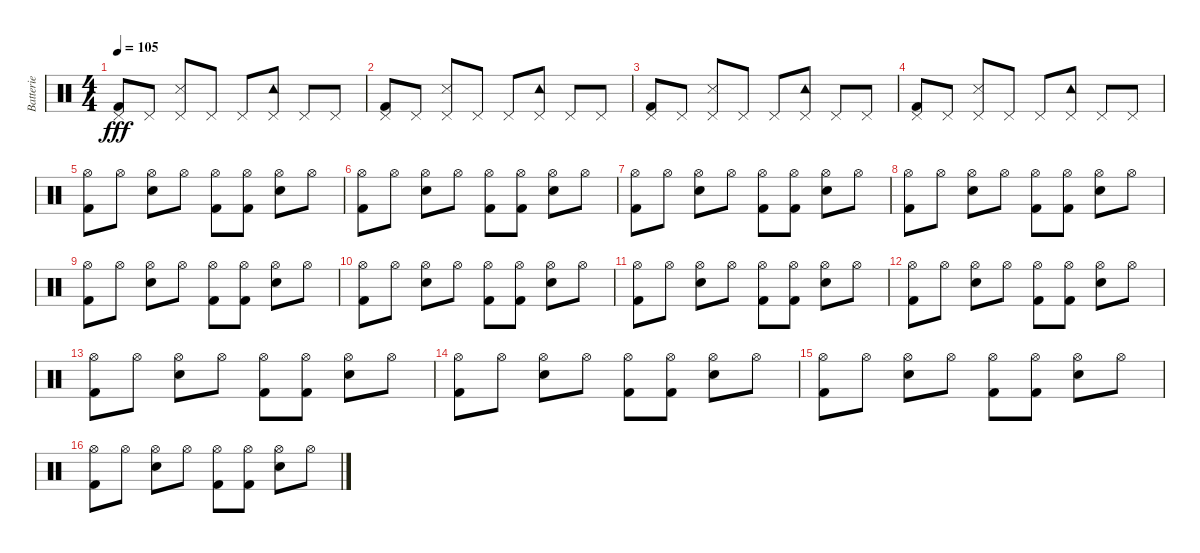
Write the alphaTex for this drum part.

\track ("Batterie" "Batterie") {instrument percussion}
\staff {score}
\articulation defaults
\ts (4 4)
\tempo 105
\clef neutral
\ks c
("Pedal Hi-Hat (hit)" "Kick (hit) 2").8{dy fff} "Pedal Hi-Hat (hit)".8 ("Pedal Hi-Hat (hit)" "Snare (side stick) 3").8 "Pedal Hi-Hat (hit)".8 "Pedal Hi-Hat (hit)".8 ("Pedal Hi-Hat (hit)" "Tambourine (hit)").8 "Pedal Hi-Hat (hit)".8 "Pedal Hi-Hat (hit)".8 |
("Pedal Hi-Hat (hit)" "Kick (hit) 2").8 "Pedal Hi-Hat (hit)".8 ("Pedal Hi-Hat (hit)" "Snare (side stick) 3").8 "Pedal Hi-Hat (hit)".8 "Pedal Hi-Hat (hit)".8 ("Pedal Hi-Hat (hit)" "Tambourine (hit)").8 "Pedal Hi-Hat (hit)".8 "Pedal Hi-Hat (hit)".8 |
("Pedal Hi-Hat (hit)" "Kick (hit) 2").8 "Pedal Hi-Hat (hit)".8 ("Pedal Hi-Hat (hit)" "Snare (side stick) 3").8 "Pedal Hi-Hat (hit)".8 "Pedal Hi-Hat (hit)".8 ("Pedal Hi-Hat (hit)" "Tambourine (hit)").8 "Pedal Hi-Hat (hit)".8 "Pedal Hi-Hat (hit)".8 |
("Pedal Hi-Hat (hit)" "Kick (hit) 2").8 "Pedal Hi-Hat (hit)".8 ("Pedal Hi-Hat (hit)" "Snare (side stick) 3").8 "Pedal Hi-Hat (hit)".8 "Pedal Hi-Hat (hit)".8 ("Pedal Hi-Hat (hit)" "Tambourine (hit)").8 "Pedal Hi-Hat (hit)".8 "Pedal Hi-Hat (hit)".8 |
("Hi-Hat (open)" "Kick (hit) 2").8 "Hi-Hat (open)".8 ("Hi-Hat (open)" "Electric Snare (hit)").8 "Hi-Hat (open)".8 ("Hi-Hat (open)" "Kick (hit) 2").8 ("Hi-Hat (open)" "Kick (hit) 2").8 ("Hi-Hat (open)" "Electric Snare (hit)").8 "Hi-Hat (open)".8 |
("Hi-Hat (open)" "Kick (hit) 2").8 "Hi-Hat (open)".8 ("Hi-Hat (open)" "Electric Snare (hit)").8 "Hi-Hat (open)".8 ("Hi-Hat (open)" "Kick (hit) 2").8 ("Hi-Hat (open)" "Kick (hit) 2").8 ("Hi-Hat (open)" "Electric Snare (hit)").8 "Hi-Hat (open)".8 |
("Hi-Hat (open)" "Kick (hit) 2").8 "Hi-Hat (open)".8 ("Hi-Hat (open)" "Electric Snare (hit)").8 "Hi-Hat (open)".8 ("Hi-Hat (open)" "Kick (hit) 2").8 ("Hi-Hat (open)" "Kick (hit) 2").8 ("Hi-Hat (open)" "Electric Snare (hit)").8 "Hi-Hat (open)".8 |
("Hi-Hat (open)" "Kick (hit) 2").8 "Hi-Hat (open)".8 ("Hi-Hat (open)" "Electric Snare (hit)").8 "Hi-Hat (open)".8 ("Hi-Hat (open)" "Kick (hit) 2").8 ("Hi-Hat (open)" "Kick (hit) 2").8 ("Hi-Hat (open)" "Electric Snare (hit)").8 "Hi-Hat (open)".8 |
("Hi-Hat (open)" "Kick (hit) 2").8 "Hi-Hat (open)".8 ("Hi-Hat (open)" "Electric Snare (hit)").8 "Hi-Hat (open)".8 ("Hi-Hat (open)" "Kick (hit) 2").8 ("Hi-Hat (open)" "Kick (hit) 2").8 ("Hi-Hat (open)" "Electric Snare (hit)").8 "Hi-Hat (open)".8 |
("Hi-Hat (open)" "Kick (hit) 2").8 "Hi-Hat (open)".8 ("Hi-Hat (open)" "Electric Snare (hit)").8 "Hi-Hat (open)".8 ("Hi-Hat (open)" "Kick (hit) 2").8 ("Hi-Hat (open)" "Kick (hit) 2").8 ("Hi-Hat (open)" "Electric Snare (hit)").8 "Hi-Hat (open)".8 |
("Hi-Hat (open)" "Kick (hit) 2").8 "Hi-Hat (open)".8 ("Hi-Hat (open)" "Electric Snare (hit)").8 "Hi-Hat (open)".8 ("Hi-Hat (open)" "Kick (hit) 2").8 ("Hi-Hat (open)" "Kick (hit) 2").8 ("Hi-Hat (open)" "Electric Snare (hit)").8 "Hi-Hat (open)".8 |
("Hi-Hat (open)" "Kick (hit) 2").8 "Hi-Hat (open)".8 ("Hi-Hat (open)" "Electric Snare (hit)").8 "Hi-Hat (open)".8 ("Hi-Hat (open)" "Kick (hit) 2").8 ("Hi-Hat (open)" "Kick (hit) 2").8 ("Hi-Hat (open)" "Electric Snare (hit)").8 "Hi-Hat (open)".8 |
("Hi-Hat (open)" "Kick (hit) 2").8 "Hi-Hat (open)".8 ("Hi-Hat (open)" "Electric Snare (hit)").8 "Hi-Hat (open)".8 ("Hi-Hat (open)" "Kick (hit) 2").8 ("Hi-Hat (open)" "Kick (hit) 2").8 ("Hi-Hat (open)" "Electric Snare (hit)").8 "Hi-Hat (open)".8 |
("Hi-Hat (open)" "Kick (hit) 2").8 "Hi-Hat (open)".8 ("Hi-Hat (open)" "Electric Snare (hit)").8 "Hi-Hat (open)".8 ("Hi-Hat (open)" "Kick (hit) 2").8 ("Hi-Hat (open)" "Kick (hit) 2").8 ("Hi-Hat (open)" "Electric Snare (hit)").8 "Hi-Hat (open)".8 |
("Hi-Hat (open)" "Kick (hit) 2").8 "Hi-Hat (open)".8 ("Hi-Hat (open)" "Electric Snare (hit)").8 "Hi-Hat (open)".8 ("Hi-Hat (open)" "Kick (hit) 2").8 ("Hi-Hat (open)" "Kick (hit) 2").8 ("Hi-Hat (open)" "Electric Snare (hit)").8 "Hi-Hat (open)".8 |
("Hi-Hat (open)" "Kick (hit) 2").8 "Hi-Hat (open)".8 ("Hi-Hat (open)" "Electric Snare (hit)").8 "Hi-Hat (open)".8 ("Hi-Hat (open)" "Kick (hit) 2").8 ("Hi-Hat (open)" "Kick (hit) 2").8 ("Hi-Hat (open)" "Electric Snare (hit)").8 "Hi-Hat (open)".8
